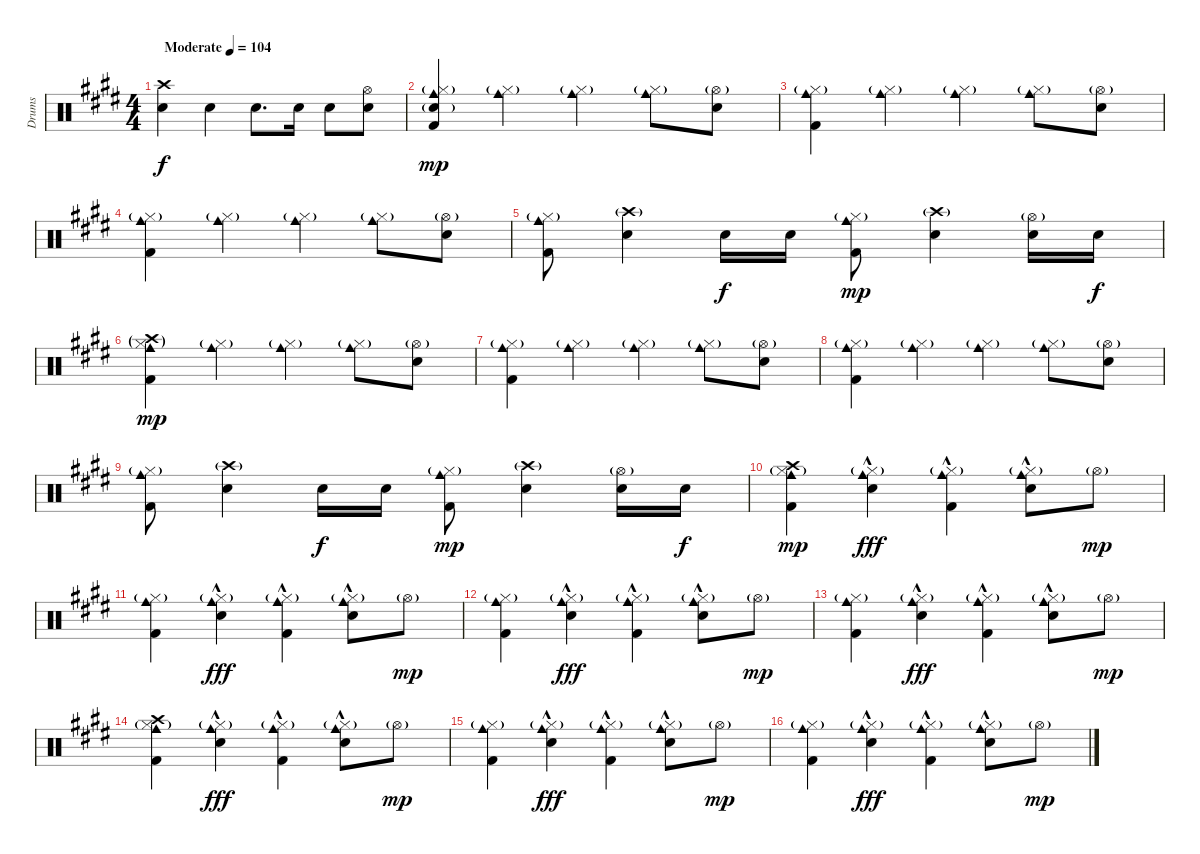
\track ("Drums" "Drums") {instrument percussion}
\staff {score}
\articulation defaults
\ts (4 4)
\tempo (104 "Moderate")
\clef neutral
\ks e
("Crash high (hit)" "Electric Snare (hit)").4{dy f} "Electric Snare (hit)".4 "Electric Snare (hit)".8{d} "Electric Snare (hit)".16 "Electric Snare (hit)".8 ("Hi-Hat (open)" "Electric Snare (hit)").8 |
("Cowbell medium (hit)" "Hi-Hat (closed)"{g} "Kick (hit) 2" "Electric Snare (hit)"{g}).4{dy mp} ("Cowbell medium (hit)" "Hi-Hat (closed)"{g}).4 ("Cowbell medium (hit)" "Hi-Hat (closed)"{g}).4 ("Cowbell medium (hit)" "Hi-Hat (closed)"{g}).8 ("Electric Snare (hit)" "Hi-Hat (open)"{g}).8 |
("Cowbell medium (hit)" "Hi-Hat (closed)"{g} "Kick (hit) 2").4 ("Cowbell medium (hit)" "Hi-Hat (closed)"{g}).4 ("Cowbell medium (hit)" "Hi-Hat (closed)"{g}).4 ("Cowbell medium (hit)" "Hi-Hat (closed)"{g}).8 ("Electric Snare (hit)" "Hi-Hat (open)"{g}).8 |
("Cowbell medium (hit)" "Hi-Hat (closed)"{g} "Kick (hit) 2").4 ("Cowbell medium (hit)" "Hi-Hat (closed)"{g}).4 ("Cowbell medium (hit)" "Hi-Hat (closed)"{g}).4 ("Cowbell medium (hit)" "Hi-Hat (closed)"{g}).8 ("Electric Snare (hit)" "Hi-Hat (open)"{g}).8 |
("Cowbell medium (hit)" "Hi-Hat (closed)"{g} "Kick (hit) 2").8 ("Crash high (hit)"{g} "Electric Snare (hit)").4 "Electric Snare (hit)".16{dy f} "Electric Snare (hit)".16 ("Cowbell medium (hit)" "Hi-Hat (closed)"{g} "Kick (hit) 2").8{dy mp} ("Crash high (hit)"{g} "Electric Snare (hit)").4 ("Electric Snare (hit)" "Hi-Hat (open)"{g}).16 "Electric Snare (hit)".16{dy f} |
("Cowbell medium (hit)" "Hi-Hat (closed)"{g} "Crash high (hit)"{g} "Kick (hit) 2").4{dy mp} ("Cowbell medium (hit)" "Hi-Hat (closed)"{g}).4 ("Cowbell medium (hit)" "Hi-Hat (closed)"{g}).4 ("Cowbell medium (hit)" "Hi-Hat (closed)"{g}).8 ("Electric Snare (hit)" "Hi-Hat (open)"{g}).8 |
("Cowbell medium (hit)" "Hi-Hat (closed)"{g} "Kick (hit) 2").4 ("Cowbell medium (hit)" "Hi-Hat (closed)"{g}).4 ("Cowbell medium (hit)" "Hi-Hat (closed)"{g}).4 ("Cowbell medium (hit)" "Hi-Hat (closed)"{g}).8 ("Electric Snare (hit)" "Hi-Hat (open)"{g}).8 |
("Cowbell medium (hit)" "Hi-Hat (closed)"{g} "Kick (hit) 2").4 ("Cowbell medium (hit)" "Hi-Hat (closed)"{g}).4 ("Cowbell medium (hit)" "Hi-Hat (closed)"{g}).4 ("Cowbell medium (hit)" "Hi-Hat (closed)"{g}).8 ("Electric Snare (hit)" "Hi-Hat (open)"{g}).8 |
("Cowbell medium (hit)" "Hi-Hat (closed)"{g} "Kick (hit) 2").8 ("Crash high (hit)"{g} "Electric Snare (hit)").4 "Electric Snare (hit)".16{dy f} "Electric Snare (hit)".16 ("Cowbell medium (hit)" "Hi-Hat (closed)"{g} "Kick (hit) 2").8{dy mp} ("Crash high (hit)"{g} "Electric Snare (hit)").4 ("Electric Snare (hit)" "Hi-Hat (open)"{g}).16 "Electric Snare (hit)".16{dy f} |
("Cowbell medium (hit)" "Hi-Hat (closed)"{g} "Crash high (hit)" "Kick (hit) 2").4{dy mp} ("Cowbell medium (hit)" "Hi-Hat (closed)"{g} "Electric Snare (hit)"{hac}).4{dy fff} ("Cowbell medium (hit)" "Hi-Hat (closed)"{g} "Kick (hit) 2"{hac}).4 ("Cowbell medium (hit)" "Hi-Hat (closed)"{g} "Electric Snare (hit)"{hac}).8 "Hi-Hat (open)"{g}.8{dy mp} |
("Cowbell medium (hit)" "Hi-Hat (closed)"{g} "Kick (hit) 2").4 ("Cowbell medium (hit)" "Hi-Hat (closed)"{g} "Electric Snare (hit)"{hac}).4{dy fff} ("Cowbell medium (hit)" "Hi-Hat (closed)"{g} "Kick (hit) 2"{hac}).4 ("Cowbell medium (hit)" "Hi-Hat (closed)"{g} "Electric Snare (hit)"{hac}).8 "Hi-Hat (open)"{g}.8{dy mp} |
("Cowbell medium (hit)" "Hi-Hat (closed)"{g} "Kick (hit) 2").4 ("Cowbell medium (hit)" "Hi-Hat (closed)"{g} "Electric Snare (hit)"{hac}).4{dy fff} ("Cowbell medium (hit)" "Hi-Hat (closed)"{g} "Kick (hit) 2"{hac}).4 ("Cowbell medium (hit)" "Hi-Hat (closed)"{g} "Electric Snare (hit)"{hac}).8 "Hi-Hat (open)"{g}.8{dy mp} |
("Cowbell medium (hit)" "Hi-Hat (closed)"{g} "Kick (hit) 2").4 ("Cowbell medium (hit)" "Hi-Hat (closed)"{g} "Electric Snare (hit)"{hac}).4{dy fff} ("Cowbell medium (hit)" "Hi-Hat (closed)"{g} "Kick (hit) 2"{hac}).4 ("Cowbell medium (hit)" "Hi-Hat (closed)"{g} "Electric Snare (hit)"{hac}).8 "Hi-Hat (open)"{g}.8{dy mp} |
("Cowbell medium (hit)" "Hi-Hat (closed)"{g} "Crash high (hit)" "Kick (hit) 2").4 ("Cowbell medium (hit)" "Hi-Hat (closed)"{g} "Electric Snare (hit)"{hac}).4{dy fff} ("Cowbell medium (hit)" "Hi-Hat (closed)"{g} "Kick (hit) 2"{hac}).4 ("Cowbell medium (hit)" "Hi-Hat (closed)"{g} "Electric Snare (hit)"{hac}).8 "Hi-Hat (open)"{g}.8{dy mp} |
("Cowbell medium (hit)" "Hi-Hat (closed)"{g} "Kick (hit) 2").4 ("Cowbell medium (hit)" "Hi-Hat (closed)"{g} "Electric Snare (hit)"{hac}).4{dy fff} ("Cowbell medium (hit)" "Hi-Hat (closed)"{g} "Kick (hit) 2"{hac}).4 ("Cowbell medium (hit)" "Hi-Hat (closed)"{g} "Electric Snare (hit)"{hac}).8 "Hi-Hat (open)"{g}.8{dy mp} |
("Cowbell medium (hit)" "Hi-Hat (closed)"{g} "Kick (hit) 2").4 ("Cowbell medium (hit)" "Hi-Hat (closed)"{g} "Electric Snare (hit)"{hac}).4{dy fff} ("Cowbell medium (hit)" "Hi-Hat (closed)"{g} "Kick (hit) 2"{hac}).4 ("Cowbell medium (hit)" "Hi-Hat (closed)"{g} "Electric Snare (hit)"{hac}).8 "Hi-Hat (open)"{g}.8{dy mp}
